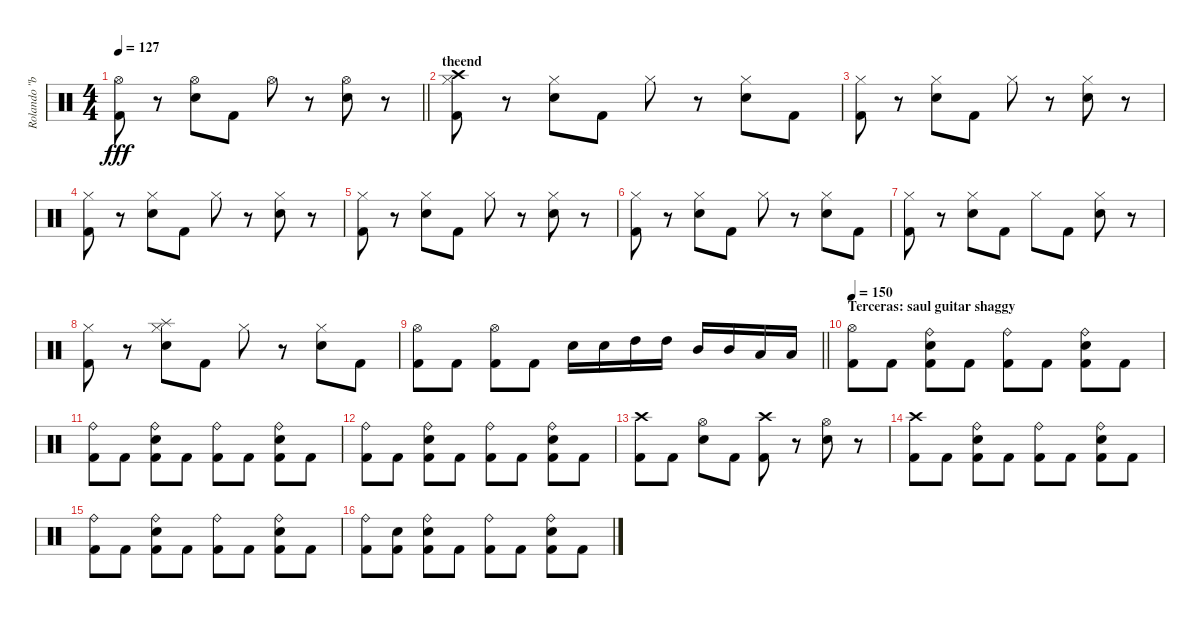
\track ("Rolando \"bataka\"" "Rolando \"b") {instrument percussion}
\staff {score}
\articulation defaults
\ts (4 4)
\tempo 127
\clef neutral
\barLineRight lightlight
\ks c
("Kick (hit) 2" "Hi-Hat (open)").8{dy fff} r.8 ("Electric Snare (hit)" "Hi-Hat (open)").8 "Kick (hit) 2".8 "Hi-Hat (open)".8 r.8 ("Electric Snare (hit)" "Hi-Hat (open)").8 r.8 |
\section ("" "theend")
("Kick (hit) 2" "Hi-Hat (closed)" "Crash high (hit)").8 r.8 ("Electric Snare (hit)" "Hi-Hat (closed)").8 "Kick (hit) 2".8 "Hi-Hat (closed)".8 r.8 ("Electric Snare (hit)" "Hi-Hat (closed)").8 "Kick (hit) 2".8 |
("Kick (hit) 2" "Hi-Hat (closed)").8 r.8 ("Electric Snare (hit)" "Hi-Hat (closed)").8 "Kick (hit) 2".8 "Hi-Hat (closed)".8 r.8 ("Electric Snare (hit)" "Hi-Hat (closed)").8 r.8 |
("Kick (hit) 2" "Hi-Hat (closed)").8 r.8 ("Electric Snare (hit)" "Hi-Hat (closed)").8 "Kick (hit) 2".8 "Hi-Hat (closed)".8 r.8 ("Electric Snare (hit)" "Hi-Hat (closed)").8 r.8 |
("Kick (hit) 2" "Hi-Hat (closed)").8 r.8 ("Electric Snare (hit)" "Hi-Hat (closed)").8 "Kick (hit) 2".8 "Hi-Hat (closed)".8 r.8 ("Electric Snare (hit)" "Hi-Hat (closed)").8 r.8 |
("Kick (hit) 2" "Hi-Hat (closed)").8 r.8 ("Electric Snare (hit)" "Hi-Hat (closed)").8 "Kick (hit) 2".8 "Hi-Hat (closed)".8 r.8 ("Electric Snare (hit)" "Hi-Hat (closed)").8 "Kick (hit) 2".8 |
("Kick (hit) 2" "Hi-Hat (closed)").8 r.8 ("Electric Snare (hit)" "Hi-Hat (closed)").8 "Kick (hit) 2".8 "Hi-Hat (closed)".8 "Kick (hit) 2".8 ("Electric Snare (hit)" "Hi-Hat (closed)").8 r.8 |
("Kick (hit) 2" "Hi-Hat (closed)").8 r.8 ("Electric Snare (hit)" "Hi-Hat (closed)" "Splash (hit)").8 "Kick (hit) 2".8 "Hi-Hat (closed)".8 r.8 ("Electric Snare (hit)" "Hi-Hat (closed)").8 "Kick (hit) 2".8 |
\barLineRight lightlight
("Kick (hit) 2" "Hi-Hat (open)").8 "Kick (hit) 2".8 ("Kick (hit) 2" "Hi-Hat (open)").8 "Kick (hit) 2".8 "Electric Snare (hit)".16 "Electric Snare (hit)".16 "High Tom (hit)".16 "High Tom (hit)".16 "Mid Tom (hit)".16 "Mid Tom (hit)".16 "Low Tom (hit)".16 "Low Tom (hit)".16 |
\section ("" "Terceras: saul guitar shaggy")
\tempo 150
("Kick (hit) 2" "Hi-Hat (open)").8 "Kick (hit) 2".8 ("Kick (hit) 2" "Electric Snare (hit)" "Ride (bell)").8 "Kick (hit) 2".8 ("Kick (hit) 2" "Ride (bell)").8 "Kick (hit) 2".8 ("Kick (hit) 2" "Electric Snare (hit)" "Ride (bell)").8 "Kick (hit) 2".8 |
("Kick (hit) 2" "Ride (bell)").8 "Kick (hit) 2".8 ("Kick (hit) 2" "Electric Snare (hit)" "Ride (bell)").8 "Kick (hit) 2".8 ("Kick (hit) 2" "Ride (bell)").8 "Kick (hit) 2".8 ("Kick (hit) 2" "Electric Snare (hit)" "Ride (bell)").8 "Kick (hit) 2".8 |
("Kick (hit) 2" "Ride (bell)").8 "Kick (hit) 2".8 ("Kick (hit) 2" "Electric Snare (hit)" "Ride (bell)").8 "Kick (hit) 2".8 ("Kick (hit) 2" "Ride (bell)").8 "Kick (hit) 2".8 ("Kick (hit) 2" "Electric Snare (hit)" "Ride (bell)").8 "Kick (hit) 2".8 |
("Kick (hit) 2" "Crash high (hit)").8 "Kick (hit) 2".8 ("Electric Snare (hit)" "Hi-Hat (open)").8 "Kick (hit) 2".8 ("Kick (hit) 2" "Crash high (hit)").8 r.8 ("Electric Snare (hit)" "Hi-Hat (open)").8 r.8 |
("Kick (hit) 2" "Crash high (hit)").8 "Kick (hit) 2".8 ("Kick (hit) 2" "Electric Snare (hit)" "Ride (bell)").8 "Kick (hit) 2".8 ("Kick (hit) 2" "Ride (bell)").8 "Kick (hit) 2".8 ("Kick (hit) 2" "Electric Snare (hit)" "Ride (bell)").8 "Kick (hit) 2".8 |
("Kick (hit) 2" "Ride (bell)").8 "Kick (hit) 2".8 ("Kick (hit) 2" "Electric Snare (hit)" "Ride (bell)").8 "Kick (hit) 2".8 ("Kick (hit) 2" "Ride (bell)").8 "Kick (hit) 2".8 ("Kick (hit) 2" "Electric Snare (hit)" "Ride (bell)").8 "Kick (hit) 2".8 |
("Kick (hit) 2" "Ride (bell)").8 ("Kick (hit) 2" "Snare (hit)").8 ("Kick (hit) 2" "Electric Snare (hit)" "Ride (bell)").8 "Kick (hit) 2".8 ("Kick (hit) 2" "Ride (bell)").8 "Kick (hit) 2".8 ("Kick (hit) 2" "Electric Snare (hit)" "Ride (bell)").8 "Kick (hit) 2".8
